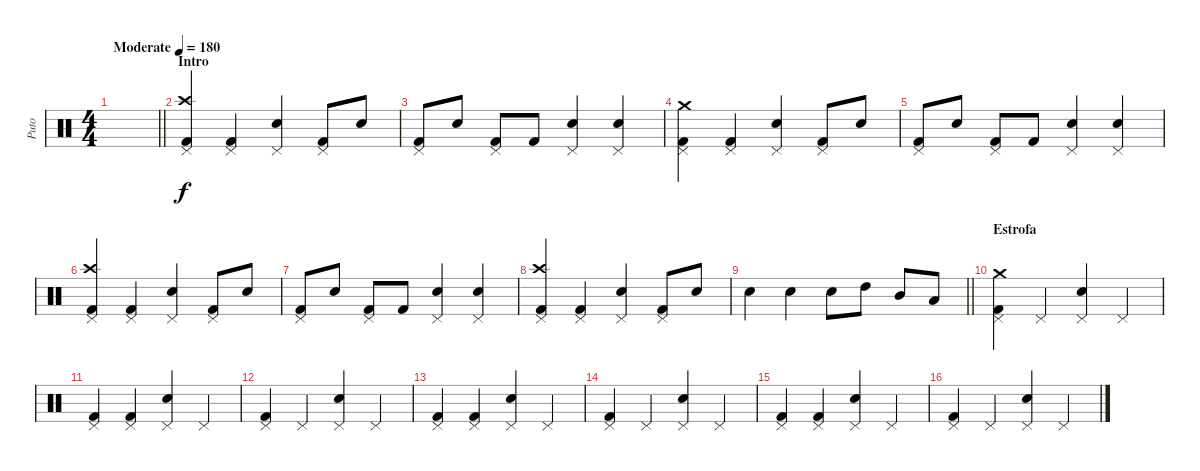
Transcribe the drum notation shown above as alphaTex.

\track ("Puto" "Puto") {instrument percussion}
\staff {score}
\articulation defaults
\ts (4 4)
\tempo (180 "Moderate")
\clef neutral
\barLineRight lightlight
\ks c
|
\section ("" "Intro")
("Kick (hit) 2" "Crash high (hit)" "Pedal Hi-Hat (hit)").4 ("Kick (hit) 2" "Pedal Hi-Hat (hit)").4 ("Snare (hit) 2" "Pedal Hi-Hat (hit)").4 ("Kick (hit) 2" "Pedal Hi-Hat (hit)").8 "Snare (hit) 2".8 |
("Kick (hit) 2" "Pedal Hi-Hat (hit)").8 "Snare (hit) 2".8 ("Kick (hit) 2" "Pedal Hi-Hat (hit)").8 "Kick (hit) 2".8 ("Snare (hit) 2" "Pedal Hi-Hat (hit)").4 ("Snare (hit) 2" "Pedal Hi-Hat (hit)").4 |
("Kick (hit) 2" "Crash medium (hit)" "Pedal Hi-Hat (hit)").4 ("Kick (hit) 2" "Pedal Hi-Hat (hit)").4 ("Snare (hit) 2" "Pedal Hi-Hat (hit)").4 ("Kick (hit) 2" "Pedal Hi-Hat (hit)").8 "Snare (hit) 2".8 |
("Kick (hit) 2" "Pedal Hi-Hat (hit)").8 "Snare (hit) 2".8 ("Kick (hit) 2" "Pedal Hi-Hat (hit)").8 "Kick (hit) 2".8 ("Snare (hit) 2" "Pedal Hi-Hat (hit)").4 ("Snare (hit) 2" "Pedal Hi-Hat (hit)").4 |
("Kick (hit) 2" "Crash high (hit)" "Pedal Hi-Hat (hit)").4 ("Kick (hit) 2" "Pedal Hi-Hat (hit)").4 ("Snare (hit) 2" "Pedal Hi-Hat (hit)").4 ("Kick (hit) 2" "Pedal Hi-Hat (hit)").8 "Snare (hit) 2".8 |
("Kick (hit) 2" "Pedal Hi-Hat (hit)").8 "Snare (hit) 2".8 ("Kick (hit) 2" "Pedal Hi-Hat (hit)").8 "Kick (hit) 2".8 ("Snare (hit) 2" "Pedal Hi-Hat (hit)").4 ("Snare (hit) 2" "Pedal Hi-Hat (hit)").4 |
("Kick (hit) 2" "Crash high (hit)" "Pedal Hi-Hat (hit)").4 ("Kick (hit) 2" "Pedal Hi-Hat (hit)").4 ("Snare (hit) 2" "Pedal Hi-Hat (hit)").4 ("Kick (hit) 2" "Pedal Hi-Hat (hit)").8 "Snare (hit) 2".8 |
\barLineRight lightlight "Snare (hit) 2".4 "Snare (hit) 2".4 "Snare (hit) 2".8 "High Tom (hit)".8 "Mid Tom (hit)".8 "Low Tom (hit)".8
|
\section ("" "Estrofa")
("Kick (hit) 2" "Crash medium (hit)" "Pedal Hi-Hat (hit)").4 "Pedal Hi-Hat (hit)".4 ("Snare (hit) 2" "Pedal Hi-Hat (hit)").4 "Pedal Hi-Hat (hit)".4 |
("Kick (hit) 2" "Pedal Hi-Hat (hit)").4 ("Kick (hit) 2" "Pedal Hi-Hat (hit)").4 ("Snare (hit) 2" "Pedal Hi-Hat (hit)").4 "Pedal Hi-Hat (hit)".4 |
("Kick (hit) 2" "Pedal Hi-Hat (hit)").4 "Pedal Hi-Hat (hit)".4 ("Snare (hit) 2" "Pedal Hi-Hat (hit)").4 "Pedal Hi-Hat (hit)".4 |
("Kick (hit) 2" "Pedal Hi-Hat (hit)").4 ("Kick (hit) 2" "Pedal Hi-Hat (hit)").4 ("Snare (hit) 2" "Pedal Hi-Hat (hit)").4 "Pedal Hi-Hat (hit)".4 |
("Kick (hit) 2" "Pedal Hi-Hat (hit)").4 "Pedal Hi-Hat (hit)".4 ("Snare (hit) 2" "Pedal Hi-Hat (hit)").4 "Pedal Hi-Hat (hit)".4 |
("Kick (hit) 2" "Pedal Hi-Hat (hit)").4 ("Kick (hit) 2" "Pedal Hi-Hat (hit)").4 ("Snare (hit) 2" "Pedal Hi-Hat (hit)").4 "Pedal Hi-Hat (hit)".4 |
("Kick (hit) 2" "Pedal Hi-Hat (hit)").4 "Pedal Hi-Hat (hit)".4 ("Snare (hit) 2" "Pedal Hi-Hat (hit)").4 "Pedal Hi-Hat (hit)".4
